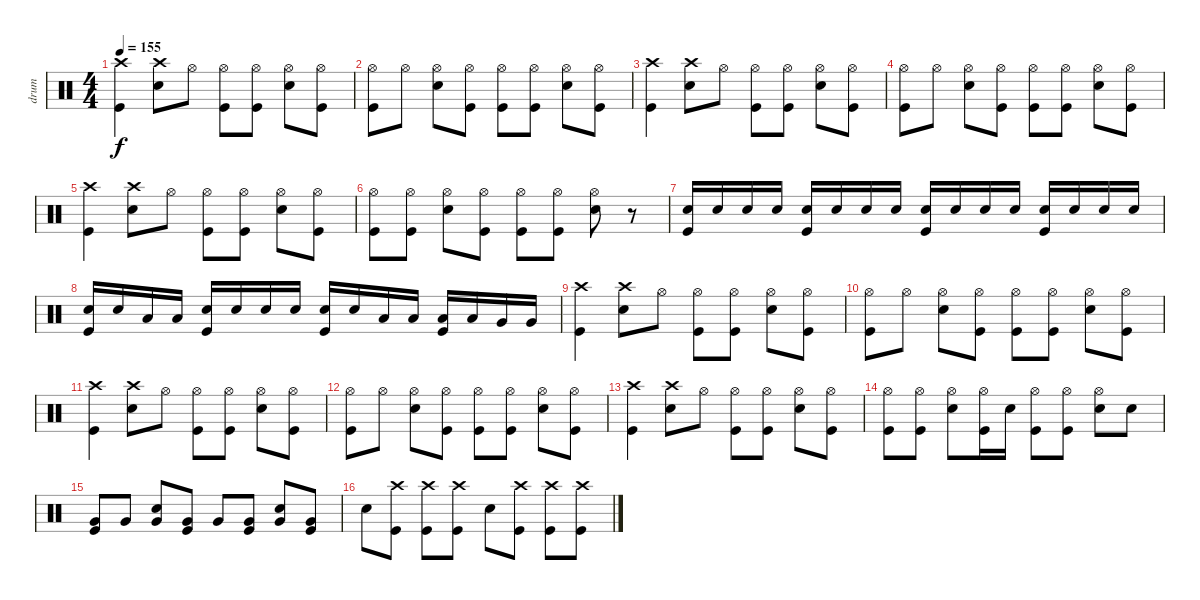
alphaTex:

\track ("drum" "drum") {instrument percussion}
\staff {score}
\articulation defaults
\ts (4 4)
\tempo 155
\clef neutral
\ks c
("Crash high (hit)" "Kick (hit)").4{dy f} ("Crash high (hit)" "Snare (hit) 2").8 "Hi-Hat (open)".8 ("Hi-Hat (open)" "Kick (hit)").8 ("Hi-Hat (open)" "Kick (hit)").8 ("Hi-Hat (open)" "Snare (hit) 2").8 ("Hi-Hat (open)" "Kick (hit)").8 |
("Hi-Hat (open)" "Kick (hit)").8 "Hi-Hat (open)".8 ("Hi-Hat (open)" "Snare (hit) 2").8 ("Hi-Hat (open)" "Kick (hit)").8 ("Hi-Hat (open)" "Kick (hit)").8 ("Hi-Hat (open)" "Kick (hit)").8 ("Hi-Hat (open)" "Snare (hit) 2").8 ("Hi-Hat (open)" "Kick (hit)").8 |
("Crash high (hit)" "Kick (hit)").4 ("Crash high (hit)" "Snare (hit) 2").8 "Hi-Hat (open)".8 ("Hi-Hat (open)" "Kick (hit)").8 ("Hi-Hat (open)" "Kick (hit)").8 ("Hi-Hat (open)" "Snare (hit) 2").8 ("Hi-Hat (open)" "Kick (hit)").8 |
("Hi-Hat (open)" "Kick (hit)").8 "Hi-Hat (open)".8 ("Hi-Hat (open)" "Snare (hit) 2").8 ("Hi-Hat (open)" "Kick (hit)").8 ("Hi-Hat (open)" "Kick (hit)").8 ("Hi-Hat (open)" "Kick (hit)").8 ("Hi-Hat (open)" "Snare (hit) 2").8 ("Hi-Hat (open)" "Kick (hit)").8 |
("Crash high (hit)" "Kick (hit)").4 ("Crash high (hit)" "Snare (hit) 2").8 "Hi-Hat (open)".8 ("Hi-Hat (open)" "Kick (hit)").8 ("Hi-Hat (open)" "Kick (hit)").8 ("Hi-Hat (open)" "Snare (hit) 2").8 ("Hi-Hat (open)" "Kick (hit)").8 |
("Hi-Hat (open)" "Kick (hit)").8 ("Hi-Hat (open)" "Kick (hit)").8 ("Hi-Hat (open)" "Snare (hit) 2").8 ("Hi-Hat (open)" "Kick (hit)").8 ("Hi-Hat (open)" "Kick (hit)").8 ("Hi-Hat (open)" "Kick (hit)").8 ("Hi-Hat (open)" "Snare (hit) 2").8 r.8 |
("Snare (hit) 2" "Kick (hit)").16 "Snare (hit) 2".16 "Snare (hit) 2".16 "Snare (hit) 2".16 ("Snare (hit) 2" "Kick (hit)").16 "Snare (hit) 2".16 "Snare (hit) 2".16 "Snare (hit) 2".16 ("Snare (hit) 2" "Kick (hit)").16 "Snare (hit) 2".16 "Snare (hit) 2".16 "Snare (hit) 2".16 ("Snare (hit) 2" "Kick (hit)").16 "Snare (hit) 2".16 "Snare (hit) 2".16 "Snare (hit) 2".16 |
("Snare (hit) 2" "Kick (hit)").16 "Snare (hit) 2".16 "Low Tom (hit)".16 "Low Tom (hit)".16 ("Snare (hit) 2" "Kick (hit)").16 "Snare (hit) 2".16 "Snare (hit) 2".16 "Snare (hit) 2".16 ("Snare (hit) 2" "Kick (hit)").16 "Snare (hit) 2".16 "Low Tom (hit)".16 "Low Tom (hit)".16 ("Low Tom (hit)" "Kick (hit)").16 "Low Tom (hit)".16 "Very Low Tom (hit)".16 "Very Low Tom (hit)".16 |
("Crash high (hit)" "Kick (hit)").4 ("Crash high (hit)" "Snare (hit) 2").8 "Hi-Hat (open)".8 ("Hi-Hat (open)" "Kick (hit)").8 ("Hi-Hat (open)" "Kick (hit)").8 ("Hi-Hat (open)" "Snare (hit) 2").8 ("Hi-Hat (open)" "Kick (hit)").8 |
("Hi-Hat (open)" "Kick (hit)").8 "Hi-Hat (open)".8 ("Hi-Hat (open)" "Snare (hit) 2").8 ("Hi-Hat (open)" "Kick (hit)").8 ("Hi-Hat (open)" "Kick (hit)").8 ("Hi-Hat (open)" "Kick (hit)").8 ("Hi-Hat (open)" "Snare (hit) 2").8 ("Hi-Hat (open)" "Kick (hit)").8 |
("Crash high (hit)" "Kick (hit)").4 ("Crash high (hit)" "Snare (hit) 2").8 "Hi-Hat (open)".8 ("Hi-Hat (open)" "Kick (hit)").8 ("Hi-Hat (open)" "Kick (hit)").8 ("Hi-Hat (open)" "Snare (hit) 2").8 ("Hi-Hat (open)" "Kick (hit)").8 |
("Hi-Hat (open)" "Kick (hit)").8 "Hi-Hat (open)".8 ("Hi-Hat (open)" "Snare (hit) 2").8 ("Hi-Hat (open)" "Kick (hit)").8 ("Hi-Hat (open)" "Kick (hit)").8 ("Hi-Hat (open)" "Kick (hit)").8 ("Hi-Hat (open)" "Snare (hit) 2").8 ("Hi-Hat (open)" "Kick (hit)").8 |
("Crash high (hit)" "Kick (hit)").4 ("Crash high (hit)" "Snare (hit) 2").8 "Hi-Hat (open)".8 ("Hi-Hat (open)" "Kick (hit)").8 ("Hi-Hat (open)" "Kick (hit)").8 ("Hi-Hat (open)" "Snare (hit) 2").8 ("Hi-Hat (open)" "Kick (hit)").8 |
("Hi-Hat (open)" "Kick (hit)").8 ("Hi-Hat (open)" "Kick (hit)").8 ("Hi-Hat (open)" "Snare (hit) 2").8 ("Hi-Hat (open)" "Kick (hit)").16 "Snare (hit) 2".16 ("Hi-Hat (open)" "Kick (hit)").8 ("Hi-Hat (open)" "Kick (hit)").8 ("Hi-Hat (open)" "Snare (hit) 2").8 "Snare (hit) 2".8 |
("Very Low Tom (hit)" "Kick (hit)").8 "Very Low Tom (hit)".8 ("Snare (hit) 2" "Very Low Tom (hit)").8 ("Very Low Tom (hit)" "Kick (hit)").8 "Very Low Tom (hit)".8 ("Very Low Tom (hit)" "Kick (hit)").8 ("Snare (hit) 2" "Very Low Tom (hit)").8 ("Very Low Tom (hit)" "Kick (hit)").8 |
"Snare (hit) 2".8 ("Crash high (hit)" "Kick (hit)").8 ("Crash high (hit)" "Kick (hit)").8 ("Crash high (hit)" "Kick (hit)").8 "Snare (hit) 2".8 ("Crash high (hit)" "Kick (hit)").8 ("Crash high (hit)" "Kick (hit)").8 ("Crash high (hit)" "Kick (hit)").8
